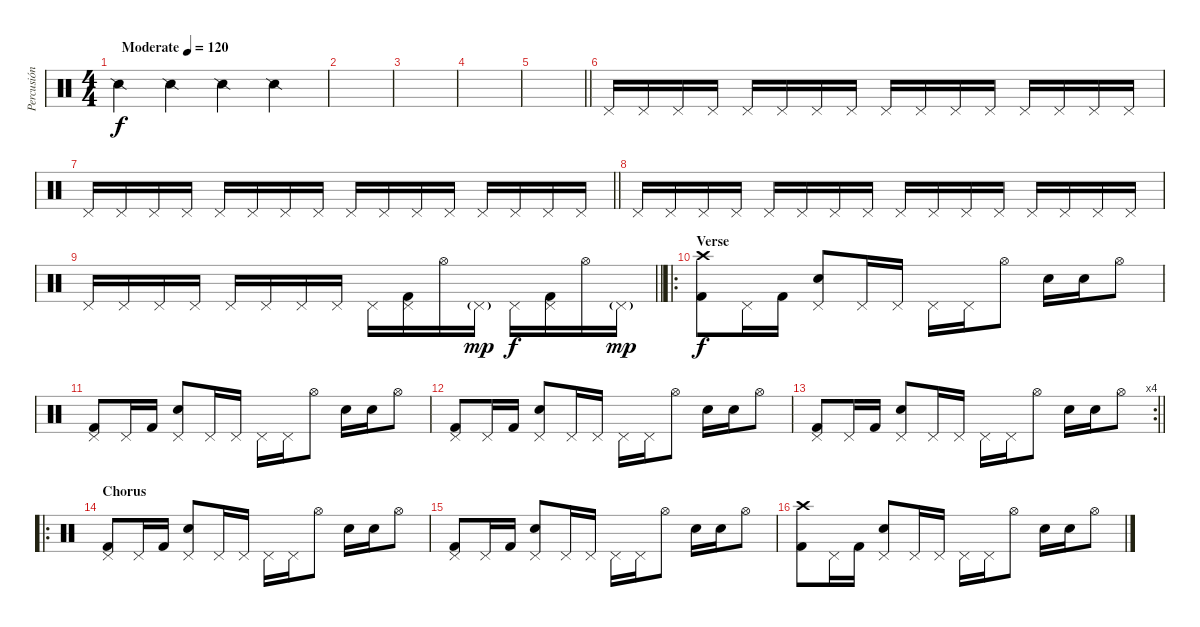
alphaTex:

\track ("Percusión" "Percusión") {instrument percussion}
\staff {score}
\articulation defaults
\ts (4 4)
\tempo (120 "Moderate")
\clef neutral
\ks c "Snare (side stick) 2".4{dy f} "Snare (side stick) 2".4 "Snare (side stick) 2".4 "Snare (side stick) 2".4
|
|
|
|
\barLineRight lightlight
|
"Pedal Hi-Hat (hit)".16 "Pedal Hi-Hat (hit)".16 "Pedal Hi-Hat (hit)".16 "Pedal Hi-Hat (hit)".16 "Pedal Hi-Hat (hit)".16 "Pedal Hi-Hat (hit)".16 "Pedal Hi-Hat (hit)".16 "Pedal Hi-Hat (hit)".16 "Pedal Hi-Hat (hit)".16 "Pedal Hi-Hat (hit)".16 "Pedal Hi-Hat (hit)".16 "Pedal Hi-Hat (hit)".16 "Pedal Hi-Hat (hit)".16 "Pedal Hi-Hat (hit)".16 "Pedal Hi-Hat (hit)".16 "Pedal Hi-Hat (hit)".16 |
\barLineRight lightlight "Pedal Hi-Hat (hit)".16 "Pedal Hi-Hat (hit)".16 "Pedal Hi-Hat (hit)".16 "Pedal Hi-Hat (hit)".16 "Pedal Hi-Hat (hit)".16 "Pedal Hi-Hat (hit)".16 "Pedal Hi-Hat (hit)".16 "Pedal Hi-Hat (hit)".16 "Pedal Hi-Hat (hit)".16 "Pedal Hi-Hat (hit)".16 "Pedal Hi-Hat (hit)".16 "Pedal Hi-Hat (hit)".16 "Pedal Hi-Hat (hit)".16 "Pedal Hi-Hat (hit)".16 "Pedal Hi-Hat (hit)".16 "Pedal Hi-Hat (hit)".16
|
"Pedal Hi-Hat (hit)".16 "Pedal Hi-Hat (hit)".16 "Pedal Hi-Hat (hit)".16 "Pedal Hi-Hat (hit)".16 "Pedal Hi-Hat (hit)".16 "Pedal Hi-Hat (hit)".16 "Pedal Hi-Hat (hit)".16 "Pedal Hi-Hat (hit)".16 "Pedal Hi-Hat (hit)".16 "Pedal Hi-Hat (hit)".16 "Pedal Hi-Hat (hit)".16 "Pedal Hi-Hat (hit)".16 "Pedal Hi-Hat (hit)".16 "Pedal Hi-Hat (hit)".16 "Pedal Hi-Hat (hit)".16 "Pedal Hi-Hat (hit)".16 |
\barLineRight lightlight "Pedal Hi-Hat (hit)".16 "Pedal Hi-Hat (hit)".16 "Pedal Hi-Hat (hit)".16 "Pedal Hi-Hat (hit)".16 "Pedal Hi-Hat (hit)".16 "Pedal Hi-Hat (hit)".16 "Pedal Hi-Hat (hit)".16 "Pedal Hi-Hat (hit)".16 "Pedal Hi-Hat (hit)".16
("Pedal Hi-Hat (hit)" "Kick (hit) 2").16 "Hi-Hat (open)".16 "Pedal Hi-Hat (hit)"{g}.16{dy mp} "Pedal Hi-Hat (hit)".16{dy f} ("Pedal Hi-Hat (hit)" "Kick (hit) 2").16 "Hi-Hat (open)".16 "Pedal Hi-Hat (hit)"{g}.16{dy mp} |
\ro
\section ("" "Verse")
("Crash high (hit)" "Kick (hit) 2").8{dy f} "Pedal Hi-Hat (hit)".16 "Kick (hit) 2".16 ("Pedal Hi-Hat (hit)" "Snare (hit) 2").8 "Pedal Hi-Hat (hit)".16 "Pedal Hi-Hat (hit)".16 "Pedal Hi-Hat (hit)".16 "Pedal Hi-Hat (hit)".16 "Hi-Hat (open)".8 "Snare (hit) 2".16 "Snare (hit) 2".16 "Hi-Hat (open)".8 |
("Pedal Hi-Hat (hit)" "Kick (hit) 2").8 "Pedal Hi-Hat (hit)".16 "Kick (hit) 2".16 ("Pedal Hi-Hat (hit)" "Snare (hit) 2").8 "Pedal Hi-Hat (hit)".16 "Pedal Hi-Hat (hit)".16 "Pedal Hi-Hat (hit)".16 "Pedal Hi-Hat (hit)".16 "Hi-Hat (open)".8 "Snare (hit) 2".16 "Snare (hit) 2".16 "Hi-Hat (open)".8 |
("Pedal Hi-Hat (hit)" "Kick (hit) 2").8 "Pedal Hi-Hat (hit)".16 "Kick (hit) 2".16 ("Pedal Hi-Hat (hit)" "Snare (hit) 2").8 "Pedal Hi-Hat (hit)".16 "Pedal Hi-Hat (hit)".16 "Pedal Hi-Hat (hit)".16 "Pedal Hi-Hat (hit)".16 "Hi-Hat (open)".8 "Snare (hit) 2".16 "Snare (hit) 2".16 "Hi-Hat (open)".8 |
\rc 4
\barLineRight lightlight
("Pedal Hi-Hat (hit)" "Kick (hit) 2").8 "Pedal Hi-Hat (hit)".16 "Kick (hit) 2".16 ("Pedal Hi-Hat (hit)" "Snare (hit) 2").8 "Pedal Hi-Hat (hit)".16 "Pedal Hi-Hat (hit)".16 "Pedal Hi-Hat (hit)".16 "Pedal Hi-Hat (hit)".16 "Hi-Hat (open)".8 "Snare (hit) 2".16 "Snare (hit) 2".16 "Hi-Hat (open)".8 |
\ro
\section ("" "Chorus")
("Pedal Hi-Hat (hit)" "Kick (hit) 2").8 "Pedal Hi-Hat (hit)".16 "Kick (hit) 2".16 ("Pedal Hi-Hat (hit)" "Snare (hit) 2").8 "Pedal Hi-Hat (hit)".16 "Pedal Hi-Hat (hit)".16 "Pedal Hi-Hat (hit)".16 "Pedal Hi-Hat (hit)".16 "Hi-Hat (open)".8 "Snare (hit) 2".16 "Snare (hit) 2".16 "Hi-Hat (open)".8 |
("Pedal Hi-Hat (hit)" "Kick (hit) 2").8 "Pedal Hi-Hat (hit)".16 "Kick (hit) 2".16 ("Pedal Hi-Hat (hit)" "Snare (hit) 2").8 "Pedal Hi-Hat (hit)".16 "Pedal Hi-Hat (hit)".16 "Pedal Hi-Hat (hit)".16 "Pedal Hi-Hat (hit)".16 "Hi-Hat (open)".8 "Snare (hit) 2".16 "Snare (hit) 2".16 "Hi-Hat (open)".8 |
("Crash high (hit)" "Kick (hit) 2").8 "Pedal Hi-Hat (hit)".16 "Kick (hit) 2".16 ("Pedal Hi-Hat (hit)" "Snare (hit) 2").8 "Pedal Hi-Hat (hit)".16 "Pedal Hi-Hat (hit)".16 "Pedal Hi-Hat (hit)".16 "Pedal Hi-Hat (hit)".16 "Hi-Hat (open)".8 "Snare (hit) 2".16 "Snare (hit) 2".16 "Hi-Hat (open)".8
